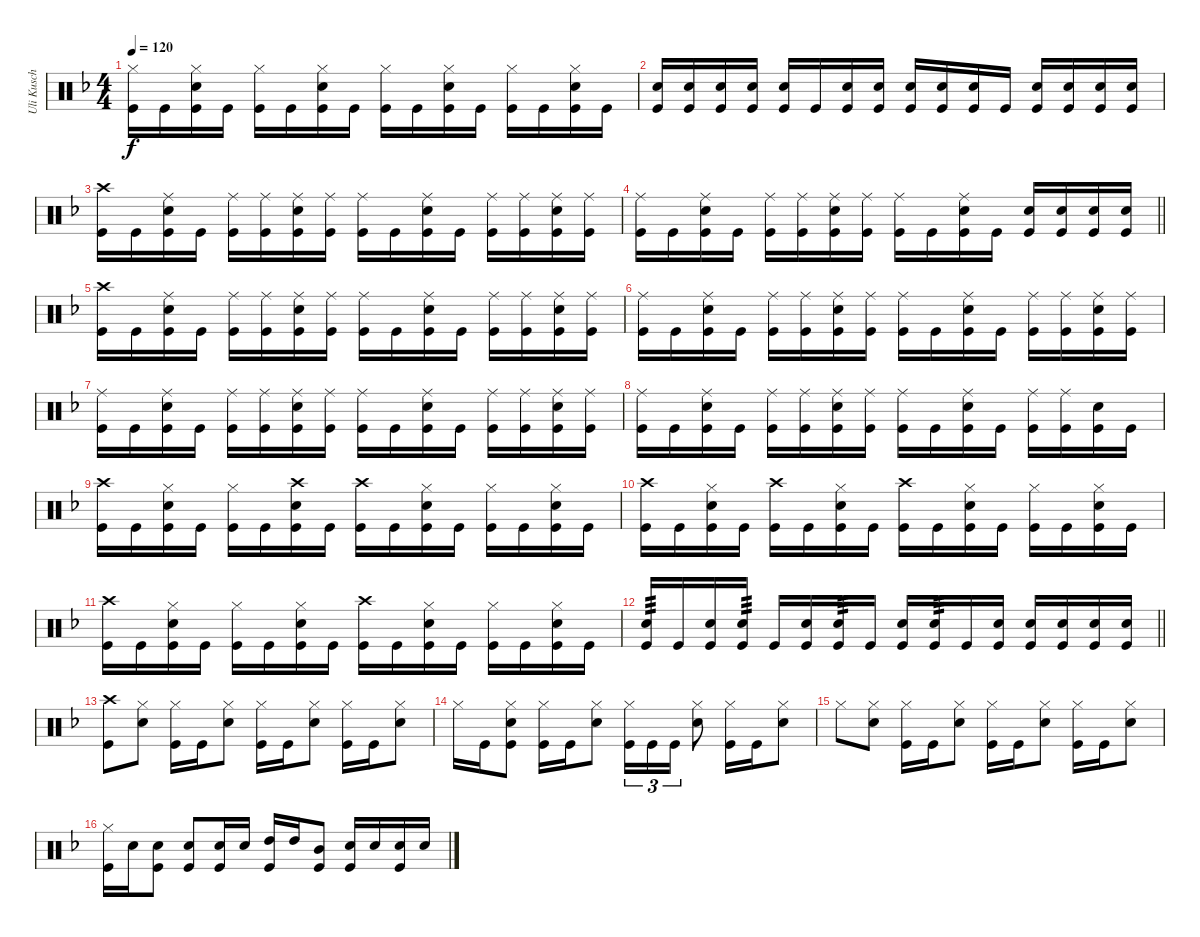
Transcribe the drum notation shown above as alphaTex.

\track ("Uli Kusch" "Uli Kusch") {instrument percussion}
\staff {score}
\articulation defaults
\ts (4 4)
\tempo 120
\clef neutral
\ks dminor
("Hi-Hat (closed)" "Kick (hit)").16{dy f} "Kick (hit)".16 ("Hi-Hat (closed)" "Snare (hit) 2" "Kick (hit)").16 "Kick (hit)".16 ("Hi-Hat (closed)" "Kick (hit)").16 "Kick (hit)".16 ("Hi-Hat (closed)" "Snare (hit) 2" "Kick (hit)").16 "Kick (hit)".16 ("Hi-Hat (closed)" "Kick (hit)").16 "Kick (hit)".16 ("Hi-Hat (closed)" "Snare (hit) 2" "Kick (hit)").16 "Kick (hit)".16 ("Hi-Hat (closed)" "Kick (hit)").16 "Kick (hit)".16 ("Hi-Hat (closed)" "Snare (hit) 2" "Kick (hit)").16 "Kick (hit)".16 |
("Snare (hit) 2" "Kick (hit)").16 ("Snare (hit) 2" "Kick (hit)").16 ("Snare (hit) 2" "Kick (hit)").16 ("Snare (hit) 2" "Kick (hit)").16 ("Snare (hit) 2" "Kick (hit)").16 "Kick (hit)".16 ("Snare (hit) 2" "Kick (hit)").16 ("Snare (hit) 2" "Kick (hit)").16 ("Snare (hit) 2" "Kick (hit)").16 ("Snare (hit) 2" "Kick (hit)").16 ("Snare (hit) 2" "Kick (hit)").16 "Kick (hit)".16 ("Snare (hit) 2" "Kick (hit)").16 ("Snare (hit) 2" "Kick (hit)").16 ("Snare (hit) 2" "Kick (hit)").16 ("Snare (hit) 2" "Kick (hit)").16 |
("Crash high (hit)" "Kick (hit)").16 "Kick (hit)".16 ("Ride (middle)" "Snare (hit) 2" "Kick (hit)").16 "Kick (hit)".16 ("Ride (middle)" "Kick (hit)").16 ("Ride (middle)" "Kick (hit)").16 ("Ride (middle)" "Snare (hit) 2" "Kick (hit)").16 ("Ride (middle)" "Kick (hit)").16 ("Ride (middle)" "Kick (hit)").16 "Kick (hit)".16 ("Ride (middle)" "Snare (hit) 2" "Kick (hit)").16 "Kick (hit)".16 ("Ride (middle)" "Kick (hit)").16 ("Ride (middle)" "Kick (hit)").16 ("Ride (middle)" "Snare (hit) 2" "Kick (hit)").16 ("Ride (middle)" "Kick (hit)").16 |
\barLineRight lightlight
("Ride (middle)" "Kick (hit)").16 "Kick (hit)".16 ("Ride (middle)" "Snare (hit) 2" "Kick (hit)").16 "Kick (hit)".16 ("Ride (middle)" "Kick (hit)").16 ("Ride (middle)" "Kick (hit)").16 ("Ride (middle)" "Snare (hit) 2" "Kick (hit)").16 ("Ride (middle)" "Kick (hit)").16 ("Ride (middle)" "Kick (hit)").16 "Kick (hit)".16 ("Ride (middle)" "Snare (hit) 2" "Kick (hit)").16 "Kick (hit)".16 ("Snare (hit) 2" "Kick (hit)").16 ("Snare (hit) 2" "Kick (hit)").16 ("Snare (hit) 2" "Kick (hit)").16 ("Snare (hit) 2" "Kick (hit)").16 |
("Crash high (hit)" "Kick (hit)").16 "Kick (hit)".16 ("Ride (middle)" "Snare (hit) 2" "Kick (hit)").16 "Kick (hit)".16 ("Ride (middle)" "Kick (hit)").16 ("Ride (middle)" "Kick (hit)").16 ("Ride (middle)" "Snare (hit) 2" "Kick (hit)").16 ("Ride (middle)" "Kick (hit)").16 ("Ride (middle)" "Kick (hit)").16 "Kick (hit)".16 ("Ride (middle)" "Snare (hit) 2" "Kick (hit)").16 "Kick (hit)".16 ("Ride (middle)" "Kick (hit)").16 ("Ride (middle)" "Kick (hit)").16 ("Ride (middle)" "Snare (hit) 2" "Kick (hit)").16 ("Ride (middle)" "Kick (hit)").16 |
("Ride (middle)" "Kick (hit)").16 "Kick (hit)".16 ("Ride (middle)" "Snare (hit) 2" "Kick (hit)").16 "Kick (hit)".16 ("Ride (middle)" "Kick (hit)").16 ("Ride (middle)" "Kick (hit)").16 ("Ride (middle)" "Snare (hit) 2" "Kick (hit)").16 ("Ride (middle)" "Kick (hit)").16 ("Ride (middle)" "Kick (hit)").16 "Kick (hit)".16 ("Ride (middle)" "Snare (hit) 2" "Kick (hit)").16 "Kick (hit)".16 ("Ride (middle)" "Kick (hit)").16 ("Ride (middle)" "Kick (hit)").16 ("Ride (middle)" "Snare (hit) 2" "Kick (hit)").16 ("Ride (middle)" "Kick (hit)").16 |
("Ride (middle)" "Kick (hit)").16 "Kick (hit)".16 ("Ride (middle)" "Snare (hit) 2" "Kick (hit)").16 "Kick (hit)".16 ("Ride (middle)" "Kick (hit)").16 ("Ride (middle)" "Kick (hit)").16 ("Ride (middle)" "Snare (hit) 2" "Kick (hit)").16 ("Ride (middle)" "Kick (hit)").16 ("Ride (middle)" "Kick (hit)").16 "Kick (hit)".16 ("Ride (middle)" "Snare (hit) 2" "Kick (hit)").16 "Kick (hit)".16 ("Ride (middle)" "Kick (hit)").16 ("Ride (middle)" "Kick (hit)").16 ("Ride (middle)" "Snare (hit) 2" "Kick (hit)").16 ("Ride (middle)" "Kick (hit)").16 |
("Ride (middle)" "Kick (hit)").16 "Kick (hit)".16 ("Ride (middle)" "Snare (hit) 2" "Kick (hit)").16 "Kick (hit)".16 ("Ride (middle)" "Kick (hit)").16 ("Ride (middle)" "Kick (hit)").16 ("Ride (middle)" "Snare (hit) 2" "Kick (hit)").16 ("Ride (middle)" "Kick (hit)").16 ("Ride (middle)" "Kick (hit)").16 "Kick (hit)".16 ("Ride (middle)" "Snare (hit) 2" "Kick (hit)").16 "Kick (hit)".16 ("Ride (middle)" "Kick (hit)").16 ("Ride (middle)" "Kick (hit)").16 ("Snare (hit) 2" "Kick (hit)").16 "Kick (hit)".16 |
("Crash high (hit)" "Kick (hit)").16 "Kick (hit)".16 ("Hi-Hat (closed)" "Snare (hit) 2" "Kick (hit)").16 "Kick (hit)".16 ("Hi-Hat (closed)" "Kick (hit)").16 "Kick (hit)".16 ("Crash high (hit)" "Snare (hit) 2" "Kick (hit)").16 "Kick (hit)".16 ("Crash high (hit)" "Kick (hit)").16 "Kick (hit)".16 ("Hi-Hat (closed)" "Snare (hit) 2" "Kick (hit)").16 "Kick (hit)".16 ("Hi-Hat (closed)" "Kick (hit)").16 "Kick (hit)".16 ("Hi-Hat (closed)" "Snare (hit) 2" "Kick (hit)").16 "Kick (hit)".16 |
("Crash high (hit)" "Kick (hit)").16 "Kick (hit)".16 ("Hi-Hat (closed)" "Snare (hit) 2" "Kick (hit)").16 "Kick (hit)".16 ("Crash high (hit)" "Kick (hit)").16 "Kick (hit)".16 ("Hi-Hat (closed)" "Snare (hit) 2" "Kick (hit)").16 "Kick (hit)".16 ("Crash high (hit)" "Kick (hit)").16 "Kick (hit)".16 ("Hi-Hat (closed)" "Snare (hit) 2" "Kick (hit)").16 "Kick (hit)".16 ("Hi-Hat (closed)" "Kick (hit)").16 "Kick (hit)".16 ("Hi-Hat (closed)" "Snare (hit) 2" "Kick (hit)").16 "Kick (hit)".16 |
("Crash high (hit)" "Kick (hit)").16 "Kick (hit)".16 ("Hi-Hat (closed)" "Snare (hit) 2" "Kick (hit)").16 "Kick (hit)".16 ("Hi-Hat (closed)" "Kick (hit)").16 "Kick (hit)".16 ("Hi-Hat (closed)" "Snare (hit) 2" "Kick (hit)").16 "Kick (hit)".16 ("Crash high (hit)" "Kick (hit)").16 "Kick (hit)".16 ("Hi-Hat (closed)" "Snare (hit) 2" "Kick (hit)").16 "Kick (hit)".16 ("Hi-Hat (closed)" "Kick (hit)").16 "Kick (hit)".16 ("Hi-Hat (closed)" "Snare (hit) 2" "Kick (hit)").16 "Kick (hit)".16 |
\barLineRight lightlight
("Snare (hit) 2" "Kick (hit)").16{tp 3} "Kick (hit)".16 ("Snare (hit) 2" "Kick (hit)").16 ("Snare (hit) 2" "Kick (hit)").16{tp 3} "Kick (hit)".16 ("Snare (hit) 2" "Kick (hit)").16 ("Snare (hit) 2" "Kick (hit)").16{tp 3} "Kick (hit)".16 ("Snare (hit) 2" "Kick (hit)").16 ("Snare (hit) 2" "Kick (hit)").16{tp 3} "Kick (hit)".16 ("Snare (hit) 2" "Kick (hit)").16 ("Snare (hit) 2" "Kick (hit)").16 ("Snare (hit) 2" "Kick (hit)").16 ("Snare (hit) 2" "Kick (hit)").16 ("Snare (hit) 2" "Kick (hit)").16 |
("Crash high (hit)" "Kick (hit)").8 ("Hi-Hat (closed)" "Snare (hit) 2").8 ("Hi-Hat (closed)" "Kick (hit)").16 "Kick (hit)".16 ("Hi-Hat (closed)" "Snare (hit) 2").8 ("Hi-Hat (closed)" "Kick (hit)").16 "Kick (hit)".16 ("Hi-Hat (closed)" "Snare (hit) 2").8 ("Hi-Hat (closed)" "Kick (hit)").16 "Kick (hit)".16 ("Hi-Hat (closed)" "Snare (hit) 2").8 |
"Hi-Hat (closed)".16 "Kick (hit)".16 ("Hi-Hat (closed)" "Snare (hit) 2" "Kick (hit)").8 ("Hi-Hat (closed)" "Kick (hit)").16 "Kick (hit)".16 ("Hi-Hat (closed)" "Snare (hit) 2").8 ("Hi-Hat (closed)" "Kick (hit)").16{tu (3 2)} "Kick (hit)".16{tu (3 2)} "Kick (hit)".16{tu (3 2)} ("Hi-Hat (closed)" "Snare (hit) 2").8 ("Hi-Hat (closed)" "Kick (hit)").16 "Kick (hit)".16 ("Hi-Hat (closed)" "Snare (hit) 2").8 |
"Hi-Hat (closed)".8 ("Hi-Hat (closed)" "Snare (hit) 2").8 ("Hi-Hat (closed)" "Kick (hit)").16 "Kick (hit)".16 ("Hi-Hat (closed)" "Snare (hit) 2").8 ("Hi-Hat (closed)" "Kick (hit)").16 "Kick (hit)".16 ("Hi-Hat (closed)" "Snare (hit) 2").8 ("Hi-Hat (closed)" "Kick (hit)").16 "Kick (hit)".16 ("Hi-Hat (closed)" "Snare (hit) 2").8 |
("Hi-Hat (closed)" "Kick (hit)").16 "Snare (hit) 2".16 ("Snare (hit) 2" "Kick (hit)").8 ("Snare (hit) 2" "Kick (hit)").8 ("Snare (hit) 2" "Kick (hit)").16 "Snare (hit) 2".16 ("High Tom (hit)" "Kick (hit)").16 "High Tom (hit)".16 ("Mid Tom (hit)" "Kick (hit)").8 ("Snare (hit) 2" "Kick (hit)").16 "Snare (hit) 2".16 ("Snare (hit) 2" "Kick (hit)").16 "Snare (hit) 2".16
